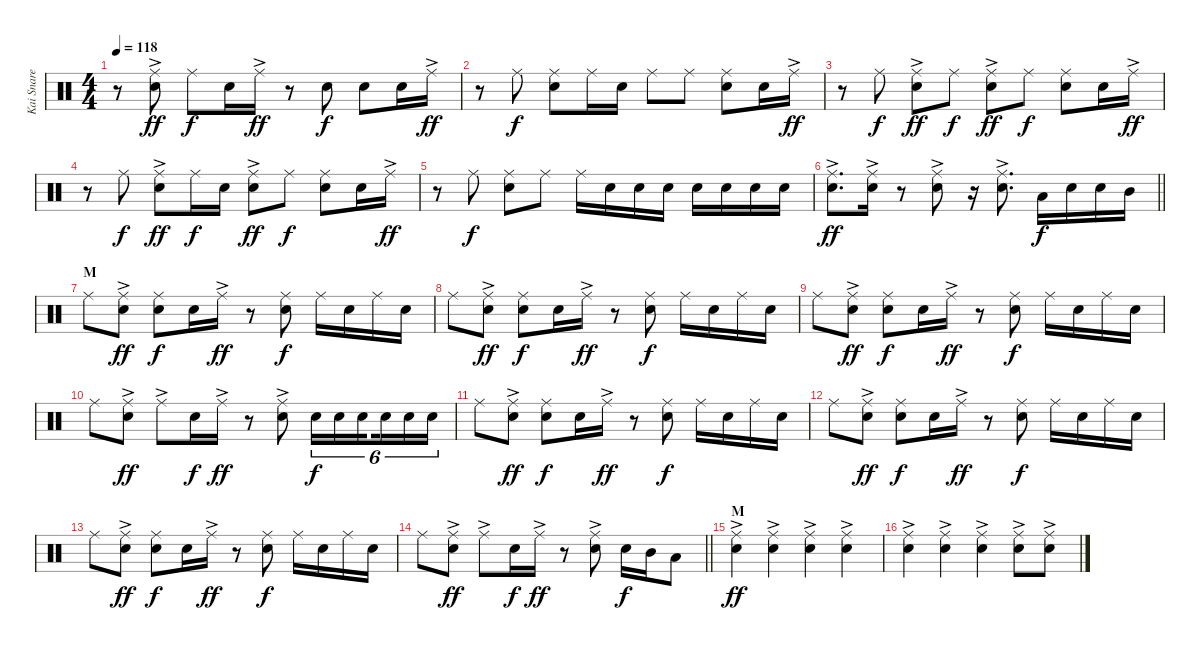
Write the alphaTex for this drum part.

\track ("Kai Snare" "Kai Snare") {instrument percussion}
\staff {score}
\articulation defaults
\ts (4 4)
\tempo 118
\clef neutral
\ks c
r.8{dy ff} ("Ride (middle)"{ac} "Snare (hit) 2").8 "Ride (middle)".8{dy f} "Snare (hit) 2".16 "Ride (middle)"{ac}.16{dy ff} r.8 "Snare (hit) 2".8{dy f} "Snare (hit) 2".8 "Snare (hit) 2".16 "Ride (middle)"{ac}.16{dy ff} |
r.8 "Ride (middle)".8{dy f} ("Ride (middle)" "Snare (hit) 2").8 "Ride (middle)".16 "Snare (hit) 2".16 "Ride (middle)".8 "Ride (middle)".8 ("Ride (middle)" "Snare (hit) 2").8 "Snare (hit) 2".16 "Ride (middle)"{ac}.16{dy ff} |
r.8 "Ride (middle)".8{dy f} ("Ride (middle)"{ac} "Snare (hit) 2").8{dy ff} "Ride (middle)".8{dy f} ("Ride (middle)"{ac} "Snare (hit) 2").8{dy ff} "Ride (middle)".8{dy f} ("Ride (middle)" "Snare (hit) 2").8 "Snare (hit) 2".16 "Ride (middle)"{ac}.16{dy ff} |
r.8 "Ride (middle)".8{dy f} ("Ride (middle)"{ac} "Snare (hit) 2").8{dy ff} "Ride (middle)".16{dy f} "Snare (hit) 2".16 ("Ride (middle)"{ac} "Snare (hit) 2").8{dy ff} "Ride (middle)".8{dy f} ("Ride (middle)" "Snare (hit) 2").8 "Snare (hit) 2".16 "Ride (middle)"{ac}.16{dy ff} |
r.8 "Ride (middle)".8{dy f} ("Ride (middle)" "Snare (hit) 2").8 "Ride (middle)".8 "Ride (middle)".16 "Snare (hit) 2".16 "Snare (hit) 2".16 "Snare (hit) 2".16 "Snare (hit) 2".16 "Snare (hit) 2".16 "Snare (hit) 2".16 "Snare (hit) 2".16 |
\barLineRight lightlight
("Ride (middle)"{ac} "Snare (hit) 2").8{d dy ff} ("Ride (middle)"{ac} "Snare (hit) 2").16 r.8 ("Ride (middle)"{ac} "Snare (hit) 2").8 r.16 ("Ride (middle)"{ac} "Snare (hit) 2").8{d} "Low Tom (hit)".16{dy f} "Snare (hit) 2".16 "Snare (hit) 2".16 "Mid Tom (hit)".16 |
\section ("" "M")
"Ride (middle)".8 ("Ride (middle)"{ac} "Snare (hit) 2").8{dy ff} ("Ride (middle)" "Snare (hit) 2").8{dy f} "Snare (hit) 2".16 "Ride (middle)"{ac}.16{dy ff} r.8 ("Ride (middle)" "Snare (hit) 2").8{dy f} "Ride (middle)".16 "Snare (hit) 2".16 "Ride (middle)".16 "Snare (hit) 2".16 |
"Ride (middle)".8 ("Ride (middle)"{ac} "Snare (hit) 2").8{dy ff} ("Ride (middle)" "Snare (hit) 2").8{dy f} "Snare (hit) 2".16 "Ride (middle)"{ac}.16{dy ff} r.8 ("Ride (middle)" "Snare (hit) 2").8{dy f} "Ride (middle)".16 "Snare (hit) 2".16 "Ride (middle)".16 "Snare (hit) 2".16 |
"Ride (middle)".8 ("Ride (middle)"{ac} "Snare (hit) 2").8{dy ff} ("Ride (middle)" "Snare (hit) 2").8{dy f} "Snare (hit) 2".16 "Ride (middle)"{ac}.16{dy ff} r.8 ("Ride (middle)" "Snare (hit) 2").8{dy f} "Ride (middle)".16 "Snare (hit) 2".16 "Ride (middle)".16 "Snare (hit) 2".16 |
"Ride (middle)".8 ("Ride (middle)"{ac} "Snare (hit) 2").8{dy ff} "Ride (middle)"{ac}.8 "Snare (hit) 2".16{dy f} "Ride (middle)"{ac}.16{dy ff} r.8 ("Ride (middle)"{ac} "Snare (hit) 2").8 "Snare (hit) 2".16{tu (6 4) dy f} "Snare (hit) 2".16{tu (6 4)} "Snare (hit) 2".16{tu (6 4) beam splitsecondary} "Snare (hit) 2".16{tu (6 4)} "Snare (hit) 2".16{tu (6 4)} "Snare (hit) 2".16{tu (6 4)} |
"Ride (middle)".8 ("Ride (middle)"{ac} "Snare (hit) 2").8{dy ff} ("Ride (middle)" "Snare (hit) 2").8{dy f} "Snare (hit) 2".16 "Ride (middle)"{ac}.16{dy ff} r.8 ("Ride (middle)" "Snare (hit) 2").8{dy f} "Ride (middle)".16 "Snare (hit) 2".16 "Ride (middle)".16 "Snare (hit) 2".16 |
"Ride (middle)".8 ("Ride (middle)"{ac} "Snare (hit) 2").8{dy ff} ("Ride (middle)" "Snare (hit) 2").8{dy f} "Snare (hit) 2".16 "Ride (middle)"{ac}.16{dy ff} r.8 ("Ride (middle)" "Snare (hit) 2").8{dy f} "Ride (middle)".16 "Snare (hit) 2".16 "Ride (middle)".16 "Snare (hit) 2".16 |
"Ride (middle)".8 ("Ride (middle)"{ac} "Snare (hit) 2").8{dy ff} ("Ride (middle)" "Snare (hit) 2").8{dy f} "Snare (hit) 2".16 "Ride (middle)"{ac}.16{dy ff} r.8 ("Ride (middle)" "Snare (hit) 2").8{dy f} "Ride (middle)".16 "Snare (hit) 2".16 "Ride (middle)".16 "Snare (hit) 2".16 |
\barLineRight lightlight "Ride (middle)".8
("Ride (middle)"{ac} "Snare (hit) 2").8{dy ff} "Ride (middle)"{ac}.8 "Snare (hit) 2".16{dy f} "Ride (middle)"{ac}.16{dy ff} r.8 ("Ride (middle)"{ac} "Snare (hit) 2").8 "Snare (hit) 2".16{dy f} "Mid Tom (hit)".16 "Low Tom (hit)".8 |
\section ("" "M")
("Ride (middle)"{ac} "Snare (hit) 2").4{dy ff} ("Ride (middle)"{ac} "Snare (hit) 2").4 ("Ride (middle)"{ac} "Snare (hit) 2").4 ("Ride (middle)"{ac} "Snare (hit) 2").4 |
("Ride (middle)"{ac} "Snare (hit) 2").4 ("Ride (middle)"{ac} "Snare (hit) 2").4 ("Ride (middle)"{ac} "Snare (hit) 2").4 ("Ride (middle)"{ac} "Snare (hit) 2").8 ("Ride (middle)"{ac} "Snare (hit) 2").8
